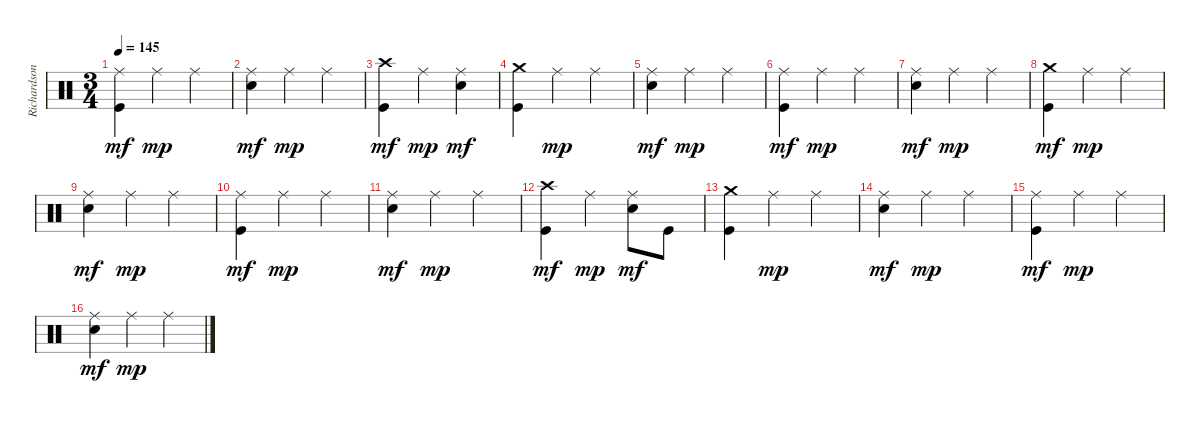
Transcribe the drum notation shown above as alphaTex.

\track ("Richardson" "Richardson") {instrument percussion}
\staff {score}
\articulation defaults
\ts (3 4)
\tempo 145
\clef neutral
\ks c
("Ride (middle)" "Kick (hit)").4{dy mf} "Ride (middle)".4{dy mp} "Ride (middle)".4 |
("Ride (middle)" "Electric Snare (hit)").4{dy mf} "Ride (middle)".4{dy mp} "Ride (middle)".4 |
("Crash high (hit)" "Kick (hit)").4{dy mf} "Ride (middle)".4{dy mp} ("Ride (middle)" "Electric Snare (hit)").4{dy mf} |
("Crash medium (hit)" "Kick (hit)").4 "Ride (middle)".4{dy mp} "Ride (middle)".4 |
("Ride (middle)" "Electric Snare (hit)").4{dy mf} "Ride (middle)".4{dy mp} "Ride (middle)".4 |
("Ride (middle)" "Kick (hit)").4{dy mf} "Ride (middle)".4{dy mp} "Ride (middle)".4 |
("Ride (middle)" "Electric Snare (hit)").4{dy mf} "Ride (middle)".4{dy mp} "Ride (middle)".4 |
("Crash medium (hit)" "Kick (hit)").4{dy mf} "Ride (middle)".4{dy mp} "Ride (middle)".4 |
("Ride (middle)" "Electric Snare (hit)").4{dy mf} "Ride (middle)".4{dy mp} "Ride (middle)".4 |
("Ride (middle)" "Kick (hit)").4{dy mf} "Ride (middle)".4{dy mp} "Ride (middle)".4 |
("Ride (middle)" "Electric Snare (hit)").4{dy mf} "Ride (middle)".4{dy mp} "Ride (middle)".4 |
("Crash high (hit)" "Kick (hit)").4{dy mf} "Ride (middle)".4{dy mp} ("Ride (middle)" "Electric Snare (hit)").8{dy mf} "Kick (hit)".8 |
("Crash medium (hit)" "Kick (hit)").4 "Ride (middle)".4{dy mp} "Ride (middle)".4 |
("Ride (middle)" "Electric Snare (hit)").4{dy mf} "Ride (middle)".4{dy mp} "Ride (middle)".4 |
("Ride (middle)" "Kick (hit)").4{dy mf} "Ride (middle)".4{dy mp} "Ride (middle)".4 |
("Ride (middle)" "Electric Snare (hit)").4{dy mf} "Ride (middle)".4{dy mp} "Ride (middle)".4
